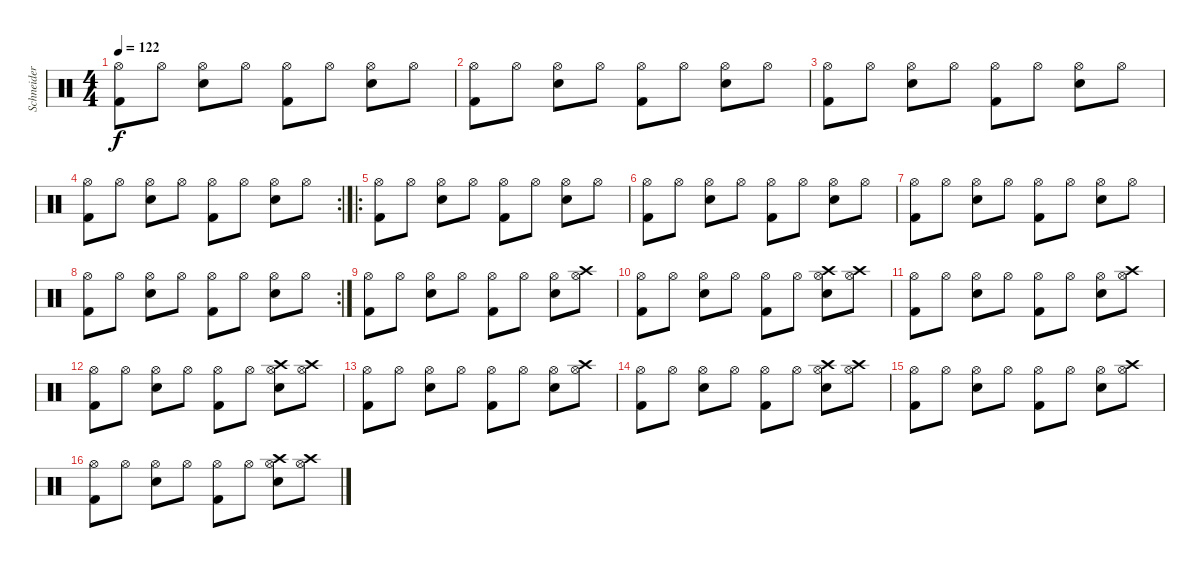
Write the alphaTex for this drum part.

\track ("Schneider" "Schneider") {instrument percussion}
\staff {score}
\articulation defaults
\ts (4 4)
\tempo 122
\clef neutral
\ks c
("Hi-Hat (open)" "Kick (hit) 2").8{dy f} "Hi-Hat (open)".8 ("Hi-Hat (open)" "Snare (hit) 2").8 "Hi-Hat (open)".8 ("Hi-Hat (open)" "Kick (hit) 2").8 "Hi-Hat (open)".8 ("Hi-Hat (open)" "Snare (hit) 2").8 "Hi-Hat (open)".8 |
("Hi-Hat (open)" "Kick (hit) 2").8 "Hi-Hat (open)".8 ("Hi-Hat (open)" "Snare (hit) 2").8 "Hi-Hat (open)".8 ("Hi-Hat (open)" "Kick (hit) 2").8 "Hi-Hat (open)".8 ("Hi-Hat (open)" "Snare (hit) 2").8 "Hi-Hat (open)".8 |
("Hi-Hat (open)" "Kick (hit) 2").8 "Hi-Hat (open)".8 ("Hi-Hat (open)" "Snare (hit) 2").8 "Hi-Hat (open)".8 ("Hi-Hat (open)" "Kick (hit) 2").8 "Hi-Hat (open)".8 ("Hi-Hat (open)" "Snare (hit) 2").8 "Hi-Hat (open)".8 |
\rc 2
("Hi-Hat (open)" "Kick (hit) 2").8 "Hi-Hat (open)".8 ("Hi-Hat (open)" "Snare (hit) 2").8 "Hi-Hat (open)".8 ("Hi-Hat (open)" "Kick (hit) 2").8 "Hi-Hat (open)".8 ("Hi-Hat (open)" "Snare (hit) 2").8 "Hi-Hat (open)".8 |
\ro
("Hi-Hat (open)" "Kick (hit) 2").8 "Hi-Hat (open)".8 ("Hi-Hat (open)" "Snare (hit) 2").8 "Hi-Hat (open)".8 ("Hi-Hat (open)" "Kick (hit) 2").8 "Hi-Hat (open)".8 ("Hi-Hat (open)" "Snare (hit) 2").8 "Hi-Hat (open)".8 |
("Hi-Hat (open)" "Kick (hit) 2").8 "Hi-Hat (open)".8 ("Hi-Hat (open)" "Snare (hit) 2").8 "Hi-Hat (open)".8 ("Hi-Hat (open)" "Kick (hit) 2").8 "Hi-Hat (open)".8 ("Hi-Hat (open)" "Snare (hit) 2").8 "Hi-Hat (open)".8 |
("Hi-Hat (open)" "Kick (hit) 2").8 "Hi-Hat (open)".8 ("Hi-Hat (open)" "Snare (hit) 2").8 "Hi-Hat (open)".8 ("Hi-Hat (open)" "Kick (hit) 2").8 "Hi-Hat (open)".8 ("Hi-Hat (open)" "Snare (hit) 2").8 "Hi-Hat (open)".8 |
\rc 2
("Hi-Hat (open)" "Kick (hit) 2").8 "Hi-Hat (open)".8 ("Hi-Hat (open)" "Snare (hit) 2").8 "Hi-Hat (open)".8 ("Hi-Hat (open)" "Kick (hit) 2").8 "Hi-Hat (open)".8 ("Hi-Hat (open)" "Snare (hit) 2").8 "Hi-Hat (open)".8 |
("Hi-Hat (open)" "Kick (hit) 2").8 "Hi-Hat (open)".8 ("Hi-Hat (open)" "Snare (hit) 2").8 "Hi-Hat (open)".8 ("Hi-Hat (open)" "Kick (hit) 2").8 "Hi-Hat (open)".8 ("Hi-Hat (open)" "Snare (hit) 2").8 ("Hi-Hat (open)" "Crash high (hit)").8 |
("Hi-Hat (open)" "Kick (hit) 2").8 "Hi-Hat (open)".8 ("Hi-Hat (open)" "Snare (hit) 2").8 "Hi-Hat (open)".8 ("Hi-Hat (open)" "Kick (hit) 2").8 "Hi-Hat (open)".8 ("Hi-Hat (open)" "Snare (hit) 2" "Crash high (hit)").8 ("Hi-Hat (open)" "Crash high (hit)").8 |
("Hi-Hat (open)" "Kick (hit) 2").8 "Hi-Hat (open)".8 ("Hi-Hat (open)" "Snare (hit) 2").8 "Hi-Hat (open)".8 ("Hi-Hat (open)" "Kick (hit) 2").8 "Hi-Hat (open)".8 ("Hi-Hat (open)" "Snare (hit) 2").8 ("Hi-Hat (open)" "Crash high (hit)").8 |
("Hi-Hat (open)" "Kick (hit) 2").8 "Hi-Hat (open)".8 ("Hi-Hat (open)" "Snare (hit) 2").8 "Hi-Hat (open)".8 ("Hi-Hat (open)" "Kick (hit) 2").8 "Hi-Hat (open)".8 ("Hi-Hat (open)" "Snare (hit) 2" "Crash high (hit)").8 ("Hi-Hat (open)" "Crash high (hit)").8 |
("Hi-Hat (open)" "Kick (hit) 2").8 "Hi-Hat (open)".8 ("Hi-Hat (open)" "Snare (hit) 2").8 "Hi-Hat (open)".8 ("Hi-Hat (open)" "Kick (hit) 2").8 "Hi-Hat (open)".8 ("Hi-Hat (open)" "Snare (hit) 2").8 ("Hi-Hat (open)" "Crash high (hit)").8 |
("Hi-Hat (open)" "Kick (hit) 2").8 "Hi-Hat (open)".8 ("Hi-Hat (open)" "Snare (hit) 2").8 "Hi-Hat (open)".8 ("Hi-Hat (open)" "Kick (hit) 2").8 "Hi-Hat (open)".8 ("Hi-Hat (open)" "Snare (hit) 2" "Crash high (hit)").8 ("Hi-Hat (open)" "Crash high (hit)").8 |
("Hi-Hat (open)" "Kick (hit) 2").8 "Hi-Hat (open)".8 ("Hi-Hat (open)" "Snare (hit) 2").8 "Hi-Hat (open)".8 ("Hi-Hat (open)" "Kick (hit) 2").8 "Hi-Hat (open)".8 ("Hi-Hat (open)" "Snare (hit) 2").8 ("Hi-Hat (open)" "Crash high (hit)").8 |
("Hi-Hat (open)" "Kick (hit) 2").8 "Hi-Hat (open)".8 ("Hi-Hat (open)" "Snare (hit) 2").8 "Hi-Hat (open)".8 ("Hi-Hat (open)" "Kick (hit) 2").8 "Hi-Hat (open)".8 ("Hi-Hat (open)" "Snare (hit) 2" "Crash high (hit)").8 ("Hi-Hat (open)" "Crash high (hit)").8
